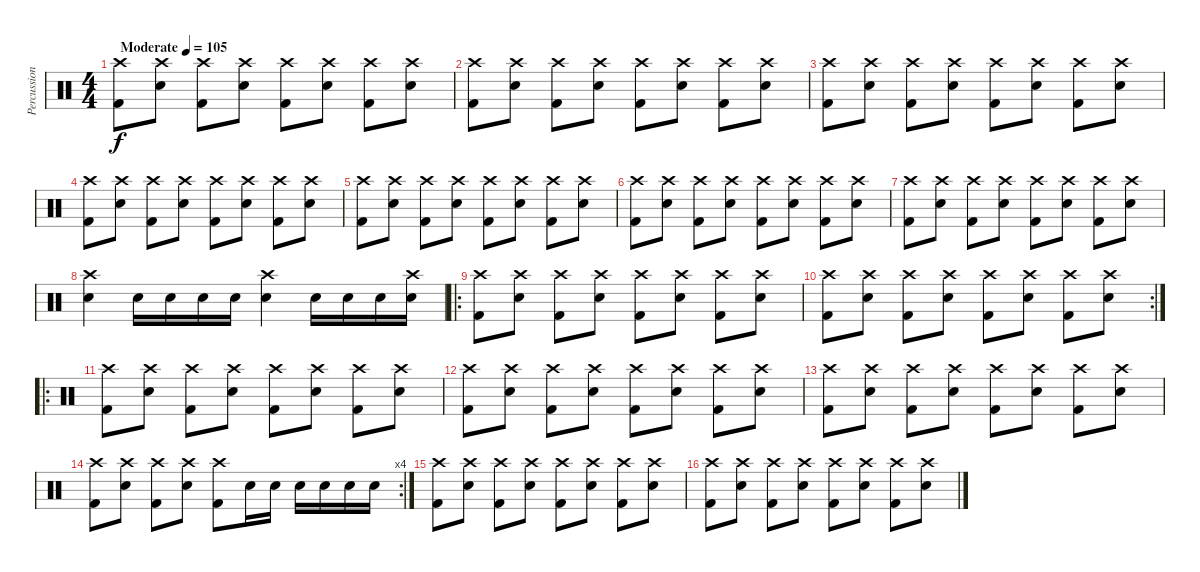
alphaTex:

\track ("Percussioni" "Percussion") {instrument percussion}
\staff {score}
\articulation defaults
\ts (4 4)
\tempo (105 "Moderate")
\clef neutral
\ks c
("Crash high (hit)" "Kick (hit) 2").8{dy f} ("Crash high (hit)" "Electric Snare (hit)").8 ("Crash high (hit)" "Kick (hit) 2").8 ("Crash high (hit)" "Electric Snare (hit)").8 ("Crash high (hit)" "Kick (hit) 2").8 ("Crash high (hit)" "Electric Snare (hit)").8 ("Crash high (hit)" "Kick (hit) 2").8 ("Crash high (hit)" "Electric Snare (hit)").8 |
("Crash high (hit)" "Kick (hit) 2").8 ("Crash high (hit)" "Electric Snare (hit)").8 ("Crash high (hit)" "Kick (hit) 2").8 ("Crash high (hit)" "Electric Snare (hit)").8 ("Crash high (hit)" "Kick (hit) 2").8 ("Crash high (hit)" "Electric Snare (hit)").8 ("Crash high (hit)" "Kick (hit) 2").8 ("Crash high (hit)" "Electric Snare (hit)").8 |
("Crash high (hit)" "Kick (hit) 2").8 ("Crash high (hit)" "Electric Snare (hit)").8 ("Crash high (hit)" "Kick (hit) 2").8 ("Crash high (hit)" "Electric Snare (hit)").8 ("Crash high (hit)" "Kick (hit) 2").8 ("Crash high (hit)" "Electric Snare (hit)").8 ("Crash high (hit)" "Kick (hit) 2").8 ("Crash high (hit)" "Electric Snare (hit)").8 |
("Crash high (hit)" "Kick (hit) 2").8 ("Crash high (hit)" "Electric Snare (hit)").8 ("Crash high (hit)" "Kick (hit) 2").8 ("Crash high (hit)" "Electric Snare (hit)").8 ("Crash high (hit)" "Kick (hit) 2").8 ("Crash high (hit)" "Electric Snare (hit)").8 ("Crash high (hit)" "Kick (hit) 2").8 ("Crash high (hit)" "Electric Snare (hit)").8 |
("Crash high (hit)" "Kick (hit) 2").8 ("Crash high (hit)" "Electric Snare (hit)").8 ("Crash high (hit)" "Kick (hit) 2").8 ("Crash high (hit)" "Electric Snare (hit)").8 ("Crash high (hit)" "Kick (hit) 2").8 ("Crash high (hit)" "Electric Snare (hit)").8 ("Crash high (hit)" "Kick (hit) 2").8 ("Crash high (hit)" "Electric Snare (hit)").8 |
("Crash high (hit)" "Kick (hit) 2").8 ("Crash high (hit)" "Electric Snare (hit)").8 ("Crash high (hit)" "Kick (hit) 2").8 ("Crash high (hit)" "Electric Snare (hit)").8 ("Crash high (hit)" "Kick (hit) 2").8 ("Crash high (hit)" "Electric Snare (hit)").8 ("Crash high (hit)" "Kick (hit) 2").8 ("Crash high (hit)" "Electric Snare (hit)").8 |
("Crash high (hit)" "Kick (hit) 2").8 ("Crash high (hit)" "Electric Snare (hit)").8 ("Crash high (hit)" "Kick (hit) 2").8 ("Crash high (hit)" "Electric Snare (hit)").8 ("Crash high (hit)" "Kick (hit) 2").8 ("Crash high (hit)" "Electric Snare (hit)").8 ("Crash high (hit)" "Kick (hit) 2").8 ("Crash high (hit)" "Electric Snare (hit)").8 |
("Crash high (hit)" "Electric Snare (hit)").4 "Electric Snare (hit)".16 "Electric Snare (hit)".16 "Electric Snare (hit)".16 "Electric Snare (hit)".16 ("Crash high (hit)" "Electric Snare (hit)").4 "Electric Snare (hit)".16 "Electric Snare (hit)".16 "Electric Snare (hit)".16 ("Crash high (hit)" "Electric Snare (hit)").16 |
\ro
("Crash high (hit)" "Kick (hit) 2").8 ("Crash high (hit)" "Electric Snare (hit)").8 ("Crash high (hit)" "Kick (hit) 2").8 ("Crash high (hit)" "Electric Snare (hit)").8 ("Crash high (hit)" "Kick (hit) 2").8 ("Crash high (hit)" "Electric Snare (hit)").8 ("Crash high (hit)" "Kick (hit) 2").8 ("Crash high (hit)" "Electric Snare (hit)").8 |
\rc 2
("Crash high (hit)" "Kick (hit) 2").8 ("Crash high (hit)" "Electric Snare (hit)").8 ("Crash high (hit)" "Kick (hit) 2").8 ("Crash high (hit)" "Electric Snare (hit)").8 ("Crash high (hit)" "Kick (hit) 2").8 ("Crash high (hit)" "Electric Snare (hit)").8 ("Crash high (hit)" "Kick (hit) 2").8 ("Crash high (hit)" "Electric Snare (hit)").8 |
\ro
("Crash high (hit)" "Kick (hit) 2").8 ("Crash high (hit)" "Electric Snare (hit)").8 ("Crash high (hit)" "Kick (hit) 2").8 ("Crash high (hit)" "Electric Snare (hit)").8 ("Crash high (hit)" "Kick (hit) 2").8 ("Crash high (hit)" "Electric Snare (hit)").8 ("Crash high (hit)" "Kick (hit) 2").8 ("Crash high (hit)" "Electric Snare (hit)").8 |
("Crash high (hit)" "Kick (hit) 2").8 ("Crash high (hit)" "Electric Snare (hit)").8 ("Crash high (hit)" "Kick (hit) 2").8 ("Crash high (hit)" "Electric Snare (hit)").8 ("Crash high (hit)" "Kick (hit) 2").8 ("Crash high (hit)" "Electric Snare (hit)").8 ("Crash high (hit)" "Kick (hit) 2").8 ("Crash high (hit)" "Electric Snare (hit)").8 |
("Crash high (hit)" "Kick (hit) 2").8 ("Crash high (hit)" "Electric Snare (hit)").8 ("Crash high (hit)" "Kick (hit) 2").8 ("Crash high (hit)" "Electric Snare (hit)").8 ("Crash high (hit)" "Kick (hit) 2").8 ("Crash high (hit)" "Electric Snare (hit)").8 ("Crash high (hit)" "Kick (hit) 2").8 ("Crash high (hit)" "Electric Snare (hit)").8 |
\rc 4
("Crash high (hit)" "Kick (hit) 2").8 ("Crash high (hit)" "Electric Snare (hit)").8 ("Crash high (hit)" "Kick (hit) 2").8 ("Crash high (hit)" "Electric Snare (hit)").8 ("Crash high (hit)" "Kick (hit) 2").8 "Electric Snare (hit)".16 "Electric Snare (hit)".16 "Electric Snare (hit)".16 "Electric Snare (hit)".16 "Electric Snare (hit)".16 "Electric Snare (hit)".16 |
("Crash high (hit)" "Kick (hit) 2").8 ("Crash high (hit)" "Electric Snare (hit)").8 ("Crash high (hit)" "Kick (hit) 2").8 ("Crash high (hit)" "Electric Snare (hit)").8 ("Crash high (hit)" "Kick (hit) 2").8 ("Crash high (hit)" "Electric Snare (hit)").8 ("Crash high (hit)" "Kick (hit) 2").8 ("Crash high (hit)" "Electric Snare (hit)").8 |
("Crash high (hit)" "Kick (hit) 2").8 ("Crash high (hit)" "Electric Snare (hit)").8 ("Crash high (hit)" "Kick (hit) 2").8 ("Crash high (hit)" "Electric Snare (hit)").8 ("Crash high (hit)" "Kick (hit) 2").8 ("Crash high (hit)" "Electric Snare (hit)").8 ("Crash high (hit)" "Kick (hit) 2").8 ("Crash high (hit)" "Electric Snare (hit)").8
